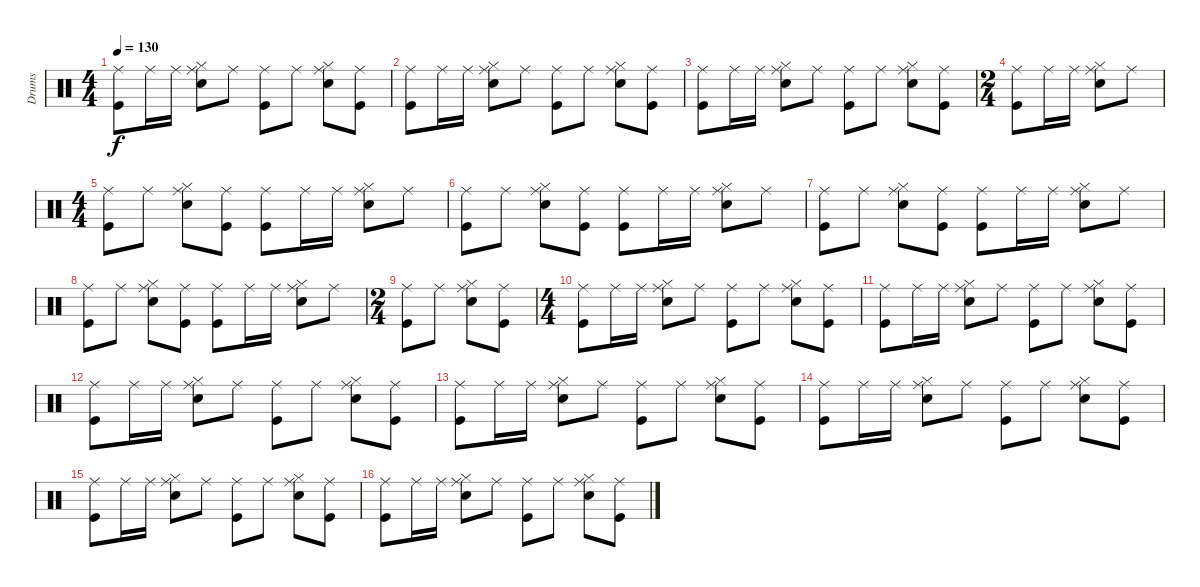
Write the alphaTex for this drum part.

\track ("Drums" "Drums") {instrument percussion}
\staff {score}
\articulation defaults
\ts (4 4)
\tempo 130
\clef neutral
\ks c
("Kick (hit)" "Ride (middle)").8{dy f} "Ride (middle)".16 "Ride (middle)".16 ("Snare (hit) 2" "Hi-Hat (closed)" "Ride (middle)").8 "Ride (middle)".8 ("Kick (hit)" "Ride (middle)").8 "Ride (middle)".8 ("Snare (hit) 2" "Hi-Hat (closed)" "Ride (middle)").8 ("Kick (hit)" "Ride (middle)").8 |
("Kick (hit)" "Ride (middle)").8 "Ride (middle)".16 "Ride (middle)".16 ("Snare (hit) 2" "Hi-Hat (closed)" "Ride (middle)").8 "Ride (middle)".8 ("Kick (hit)" "Ride (middle)").8 "Ride (middle)".8 ("Snare (hit) 2" "Hi-Hat (closed)" "Ride (middle)").8 ("Kick (hit)" "Ride (middle)").8 |
("Kick (hit)" "Ride (middle)").8 "Ride (middle)".16 "Ride (middle)".16 ("Snare (hit) 2" "Hi-Hat (closed)" "Ride (middle)").8 "Ride (middle)".8 ("Kick (hit)" "Ride (middle)").8 "Ride (middle)".8 ("Snare (hit) 2" "Hi-Hat (closed)" "Ride (middle)").8 ("Kick (hit)" "Ride (middle)").8 |
\ts (2 4)
("Kick (hit)" "Ride (middle)").8 "Ride (middle)".16 "Ride (middle)".16 ("Snare (hit) 2" "Hi-Hat (closed)" "Ride (middle)").8 "Ride (middle)".8 |
\ts (4 4)
("Kick (hit)" "Ride (middle)").8 "Ride (middle)".8 ("Snare (hit) 2" "Hi-Hat (closed)" "Ride (middle)").8 ("Kick (hit)" "Ride (middle)").8 ("Kick (hit)" "Ride (middle)").8 "Ride (middle)".16 "Ride (middle)".16 ("Snare (hit) 2" "Hi-Hat (closed)" "Ride (middle)").8 "Ride (middle)".8 |
("Kick (hit)" "Ride (middle)").8 "Ride (middle)".8 ("Snare (hit) 2" "Hi-Hat (closed)" "Ride (middle)").8 ("Kick (hit)" "Ride (middle)").8 ("Kick (hit)" "Ride (middle)").8 "Ride (middle)".16 "Ride (middle)".16 ("Snare (hit) 2" "Hi-Hat (closed)" "Ride (middle)").8 "Ride (middle)".8 |
("Kick (hit)" "Ride (middle)").8 "Ride (middle)".8 ("Snare (hit) 2" "Hi-Hat (closed)" "Ride (middle)").8 ("Kick (hit)" "Ride (middle)").8 ("Kick (hit)" "Ride (middle)").8 "Ride (middle)".16 "Ride (middle)".16 ("Snare (hit) 2" "Hi-Hat (closed)" "Ride (middle)").8 "Ride (middle)".8 |
("Kick (hit)" "Ride (middle)").8 "Ride (middle)".8 ("Snare (hit) 2" "Hi-Hat (closed)" "Ride (middle)").8 ("Kick (hit)" "Ride (middle)").8 ("Kick (hit)" "Ride (middle)").8 "Ride (middle)".16 "Ride (middle)".16 ("Snare (hit) 2" "Hi-Hat (closed)" "Ride (middle)").8 "Ride (middle)".8 |
\ts (2 4)
("Kick (hit)" "Ride (middle)").8 "Ride (middle)".8 ("Snare (hit) 2" "Hi-Hat (closed)" "Ride (middle)").8 ("Kick (hit)" "Ride (middle)").8 |
\ts (4 4)
("Kick (hit)" "Ride (middle)").8 "Ride (middle)".16 "Ride (middle)".16 ("Snare (hit) 2" "Hi-Hat (closed)" "Ride (middle)").8 "Ride (middle)".8 ("Kick (hit)" "Ride (middle)").8 "Ride (middle)".8 ("Snare (hit) 2" "Hi-Hat (closed)" "Ride (middle)").8 ("Kick (hit)" "Ride (middle)").8 |
("Kick (hit)" "Ride (middle)").8 "Ride (middle)".16 "Ride (middle)".16 ("Snare (hit) 2" "Hi-Hat (closed)" "Ride (middle)").8 "Ride (middle)".8 ("Kick (hit)" "Ride (middle)").8 "Ride (middle)".8 ("Snare (hit) 2" "Hi-Hat (closed)" "Ride (middle)").8 ("Kick (hit)" "Ride (middle)").8 |
("Kick (hit)" "Ride (middle)").8 "Ride (middle)".16 "Ride (middle)".16 ("Snare (hit) 2" "Hi-Hat (closed)" "Ride (middle)").8 "Ride (middle)".8 ("Kick (hit)" "Ride (middle)").8 "Ride (middle)".8 ("Snare (hit) 2" "Hi-Hat (closed)" "Ride (middle)").8 ("Kick (hit)" "Ride (middle)").8 |
("Kick (hit)" "Ride (middle)").8 "Ride (middle)".16 "Ride (middle)".16 ("Snare (hit) 2" "Hi-Hat (closed)" "Ride (middle)").8 "Ride (middle)".8 ("Kick (hit)" "Ride (middle)").8 "Ride (middle)".8 ("Snare (hit) 2" "Hi-Hat (closed)" "Ride (middle)").8 ("Kick (hit)" "Ride (middle)").8 |
("Kick (hit)" "Ride (middle)").8 "Ride (middle)".16 "Ride (middle)".16 ("Snare (hit) 2" "Hi-Hat (closed)" "Ride (middle)").8 "Ride (middle)".8 ("Kick (hit)" "Ride (middle)").8 "Ride (middle)".8 ("Snare (hit) 2" "Hi-Hat (closed)" "Ride (middle)").8 ("Kick (hit)" "Ride (middle)").8 |
("Kick (hit)" "Ride (middle)").8 "Ride (middle)".16 "Ride (middle)".16 ("Snare (hit) 2" "Hi-Hat (closed)" "Ride (middle)").8 "Ride (middle)".8 ("Kick (hit)" "Ride (middle)").8 "Ride (middle)".8 ("Snare (hit) 2" "Hi-Hat (closed)" "Ride (middle)").8 ("Kick (hit)" "Ride (middle)").8 |
("Kick (hit)" "Ride (middle)").8 "Ride (middle)".16 "Ride (middle)".16 ("Snare (hit) 2" "Hi-Hat (closed)" "Ride (middle)").8 "Ride (middle)".8 ("Kick (hit)" "Ride (middle)").8 "Ride (middle)".8 ("Snare (hit) 2" "Hi-Hat (closed)" "Ride (middle)").8 ("Kick (hit)" "Ride (middle)").8
